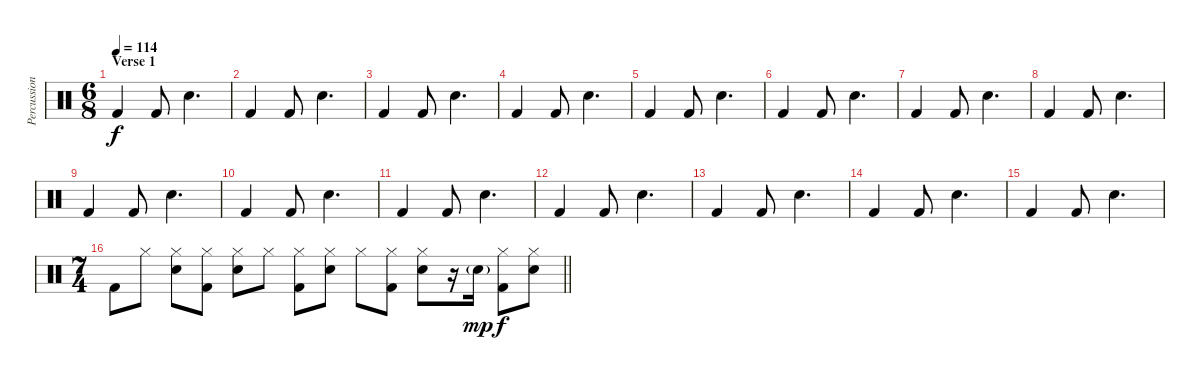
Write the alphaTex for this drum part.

\track ("Percussion" "Percussion") {instrument percussion}
\staff {score}
\articulation defaults
\ts (6 8)
\section ("" "Verse 1")
\tempo 114
\clef neutral
\ks c "Kick (hit) 2".4{dy f} "Kick (hit) 2".8 "Snare (hit) 2".4{d}
|
"Kick (hit) 2".4 "Kick (hit) 2".8 "Snare (hit) 2".4{d} |
"Kick (hit) 2".4 "Kick (hit) 2".8 "Snare (hit) 2".4{d} |
"Kick (hit) 2".4 "Kick (hit) 2".8 "Snare (hit) 2".4{d} |
"Kick (hit) 2".4 "Kick (hit) 2".8 "Snare (hit) 2".4{d} |
"Kick (hit) 2".4 "Kick (hit) 2".8 "Snare (hit) 2".4{d} |
"Kick (hit) 2".4 "Kick (hit) 2".8 "Snare (hit) 2".4{d} |
"Kick (hit) 2".4 "Kick (hit) 2".8 "Snare (hit) 2".4{d} |
"Kick (hit) 2".4 "Kick (hit) 2".8 "Snare (hit) 2".4{d} |
"Kick (hit) 2".4 "Kick (hit) 2".8 "Snare (hit) 2".4{d} |
"Kick (hit) 2".4 "Kick (hit) 2".8 "Snare (hit) 2".4{d} |
"Kick (hit) 2".4 "Kick (hit) 2".8 "Snare (hit) 2".4{d} |
"Kick (hit) 2".4 "Kick (hit) 2".8 "Snare (hit) 2".4{d} |
"Kick (hit) 2".4 "Kick (hit) 2".8 "Snare (hit) 2".4{d} |
"Kick (hit) 2".4 "Kick (hit) 2".8 "Snare (hit) 2".4{d} |
\ts (7 4)
\barLineRight lightlight "Kick (hit) 2".8 "Hi-Hat (closed)".8
("Hi-Hat (closed)" "Snare (hit) 2").8 ("Hi-Hat (closed)" "Kick (hit) 2").8 ("Hi-Hat (closed)" "Snare (hit) 2").8 "Hi-Hat (closed)".8 ("Hi-Hat (closed)" "Kick (hit) 2").8 ("Hi-Hat (closed)" "Snare (hit) 2").8 "Hi-Hat (closed)".8 ("Hi-Hat (closed)" "Kick (hit) 2").8 ("Hi-Hat (closed)" "Snare (hit) 2").8 r.16 "Snare (hit) 2"{g}.16{dy mp} ("Hi-Hat (closed)" "Kick (hit) 2").8{dy f} ("Hi-Hat (closed)" "Snare (hit) 2").8
